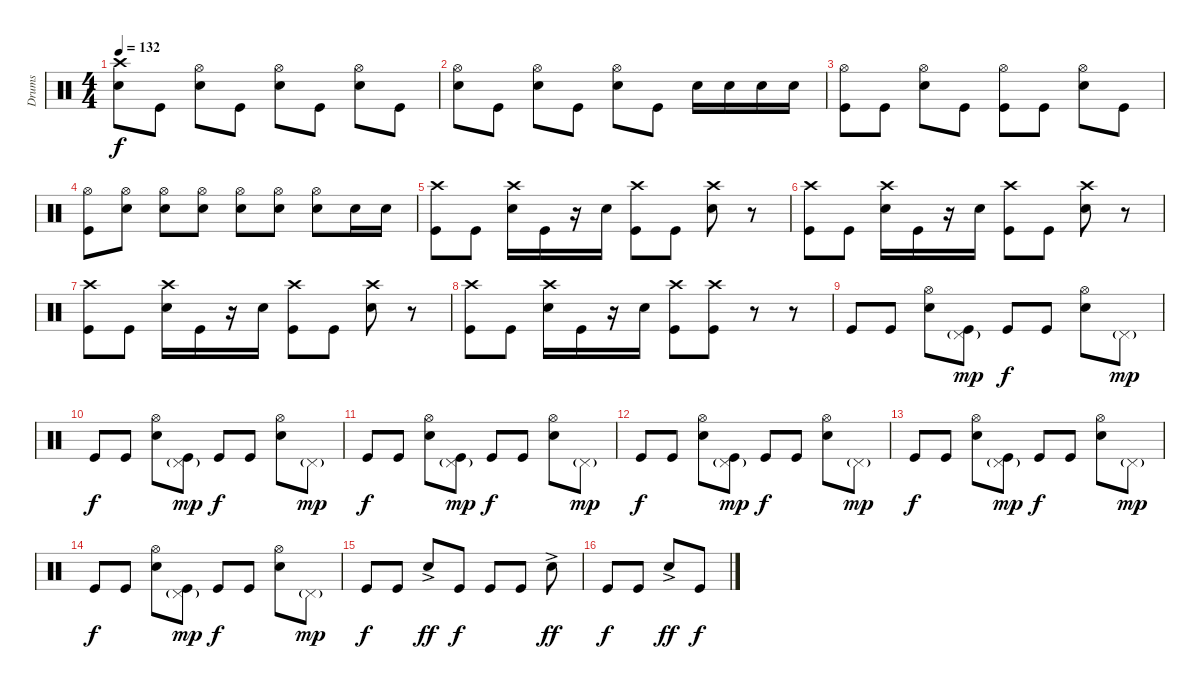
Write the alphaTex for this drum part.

\track ("Drums" "Drums") {instrument percussion}
\staff {score}
\articulation defaults
\ts (4 4)
\tempo 132
\clef neutral
\ks c
("Crash high (hit)" "Snare (hit) 2").8{dy f} "Kick (hit)".8 ("Hi-Hat (open)" "Snare (hit) 2").8 "Kick (hit)".8 ("Hi-Hat (open)" "Snare (hit) 2").8 "Kick (hit)".8 ("Hi-Hat (open)" "Snare (hit) 2").8 "Kick (hit)".8 |
("Hi-Hat (open)" "Snare (hit) 2").8 "Kick (hit)".8 ("Hi-Hat (open)" "Snare (hit) 2").8 "Kick (hit)".8 ("Hi-Hat (open)" "Snare (hit) 2").8 "Kick (hit)".8 "Snare (hit) 2".16 "Snare (hit) 2".16 "Snare (hit) 2".16 "Snare (hit) 2".16 |
("Hi-Hat (open)" "Kick (hit)").8 "Kick (hit)".8 ("Hi-Hat (open)" "Snare (hit) 2").8 "Kick (hit)".8 ("Hi-Hat (open)" "Kick (hit)").8 "Kick (hit)".8 ("Hi-Hat (open)" "Snare (hit) 2").8 "Kick (hit)".8 |
("Hi-Hat (open)" "Kick (hit)").8 ("Hi-Hat (open)" "Snare (hit) 2").8 ("Hi-Hat (open)" "Snare (hit) 2").8 ("Hi-Hat (open)" "Snare (hit) 2").8 ("Hi-Hat (open)" "Snare (hit) 2").8 ("Hi-Hat (open)" "Snare (hit) 2").8 ("Hi-Hat (open)" "Snare (hit) 2").8 "Snare (hit) 2".16 "Snare (hit) 2".16 |
("Crash high (hit)" "Kick (hit)").8 "Kick (hit)".8 ("Crash high (hit)" "Snare (hit) 2").16 "Kick (hit)".16 r.16 "Snare (hit) 2".16 ("Crash high (hit)" "Kick (hit)").8 "Kick (hit)".8 ("Crash high (hit)" "Snare (hit) 2").8 r.8 |
("Crash high (hit)" "Kick (hit)").8 "Kick (hit)".8 ("Crash high (hit)" "Snare (hit) 2").16 "Kick (hit)".16 r.16 "Snare (hit) 2".16 ("Crash high (hit)" "Kick (hit)").8 "Kick (hit)".8 ("Crash high (hit)" "Snare (hit) 2").8 r.8 |
("Crash high (hit)" "Kick (hit)").8 "Kick (hit)".8 ("Crash high (hit)" "Snare (hit) 2").16 "Kick (hit)".16 r.16 "Snare (hit) 2".16 ("Crash high (hit)" "Kick (hit)").8 "Kick (hit)".8 ("Crash high (hit)" "Snare (hit) 2").8 r.8 |
("Crash high (hit)" "Kick (hit)").8 "Kick (hit)".8 ("Crash high (hit)" "Snare (hit) 2").16 "Kick (hit)".16 r.16 "Snare (hit) 2".16 ("Crash high (hit)" "Kick (hit)").8 ("Crash high (hit)" "Kick (hit)").8 r.8 r.8 |
"Kick (hit)".8 "Kick (hit)".8 ("Hi-Hat (open)" "Snare (hit) 2").8 ("Pedal Hi-Hat (hit)"{g} "Kick (hit)").8{dy mp} "Kick (hit)".8{dy f} "Kick (hit)".8 ("Hi-Hat (open)" "Snare (hit) 2").8 "Pedal Hi-Hat (hit)"{g}.8{dy mp} |
"Kick (hit)".8{dy f} "Kick (hit)".8 ("Hi-Hat (open)" "Snare (hit) 2").8 ("Pedal Hi-Hat (hit)"{g} "Kick (hit)").8{dy mp} "Kick (hit)".8{dy f} "Kick (hit)".8 ("Hi-Hat (open)" "Snare (hit) 2").8 "Pedal Hi-Hat (hit)"{g}.8{dy mp} |
"Kick (hit)".8{dy f} "Kick (hit)".8 ("Hi-Hat (open)" "Snare (hit) 2").8 ("Pedal Hi-Hat (hit)"{g} "Kick (hit)").8{dy mp} "Kick (hit)".8{dy f} "Kick (hit)".8 ("Hi-Hat (open)" "Snare (hit) 2").8 "Pedal Hi-Hat (hit)"{g}.8{dy mp} |
"Kick (hit)".8{dy f} "Kick (hit)".8 ("Hi-Hat (open)" "Snare (hit) 2").8 ("Pedal Hi-Hat (hit)"{g} "Kick (hit)").8{dy mp} "Kick (hit)".8{dy f} "Kick (hit)".8 ("Hi-Hat (open)" "Snare (hit) 2").8 "Pedal Hi-Hat (hit)"{g}.8{dy mp} |
"Kick (hit)".8{dy f} "Kick (hit)".8 ("Hi-Hat (open)" "Snare (hit) 2").8 ("Pedal Hi-Hat (hit)"{g} "Kick (hit)").8{dy mp} "Kick (hit)".8{dy f} "Kick (hit)".8 ("Hi-Hat (open)" "Snare (hit) 2").8 "Pedal Hi-Hat (hit)"{g}.8{dy mp} |
"Kick (hit)".8{dy f} "Kick (hit)".8 ("Hi-Hat (open)" "Snare (hit) 2").8 ("Pedal Hi-Hat (hit)"{g} "Kick (hit)").8{dy mp} "Kick (hit)".8{dy f} "Kick (hit)".8 ("Hi-Hat (open)" "Snare (hit) 2").8 "Pedal Hi-Hat (hit)"{g}.8{dy mp} |
"Kick (hit)".8{dy f} "Kick (hit)".8 "Snare (hit) 2"{ac}.8{dy ff} "Kick (hit)".8{dy f} "Kick (hit)".8 "Kick (hit)".8 "Snare (hit) 2"{ac}.8{dy ff} |
"Kick (hit)".8{dy f} "Kick (hit)".8 "Snare (hit) 2"{ac}.8{dy ff} "Kick (hit)".8{dy f}
